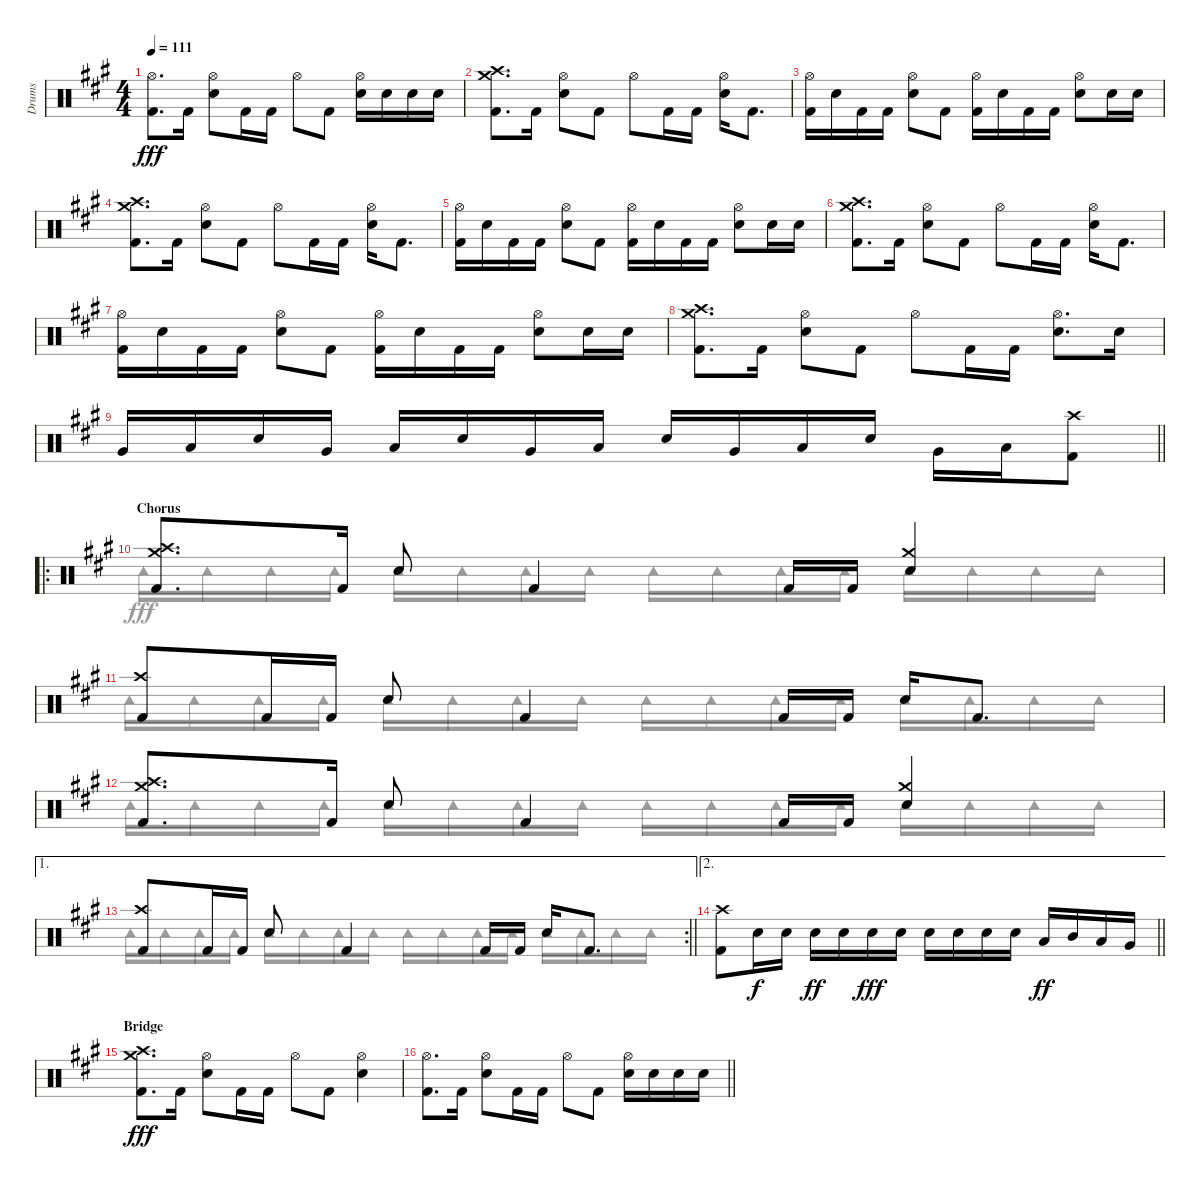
\track ("Drums" "Drums") {instrument percussion}
\staff {score}
\articulation defaults
\voice
\ts (4 4)
\tempo 111
\clef neutral
\ks a
("Hi-Hat (open)" "Kick (hit) 2").8{d dy fff} "Kick (hit) 2".16 ("Hi-Hat (open)" "Snare (hit) 2").8 "Kick (hit) 2".16 "Kick (hit) 2".16 "Hi-Hat (open)".8 "Kick (hit) 2".8 ("Hi-Hat (open)" "Snare (hit) 2").16 "Snare (hit) 2".16 "Snare (hit) 2".16 "Snare (hit) 2".16 |
("Crash medium (hit)" "Crash high (hit)" "Kick (hit) 2").8{d} "Kick (hit) 2".16 ("Hi-Hat (open)" "Snare (hit) 2").8 "Kick (hit) 2".8 "Hi-Hat (open)".8 "Kick (hit) 2".16 "Kick (hit) 2".16 ("Hi-Hat (open)" "Snare (hit) 2").16 "Kick (hit) 2".8{d} |
("Hi-Hat (open)" "Kick (hit) 2").16 "Snare (hit) 2".16 "Kick (hit) 2".16 "Kick (hit) 2".16 ("Hi-Hat (open)" "Snare (hit) 2").8 "Kick (hit) 2".8 ("Hi-Hat (open)" "Kick (hit) 2").16 "Snare (hit) 2".16 "Kick (hit) 2".16 "Kick (hit) 2".16 ("Hi-Hat (open)" "Snare (hit) 2").8 "Snare (hit) 2".16 "Snare (hit) 2".16 |
("Crash medium (hit)" "Crash high (hit)" "Kick (hit) 2").8{d} "Kick (hit) 2".16 ("Hi-Hat (open)" "Snare (hit) 2").8 "Kick (hit) 2".8 "Hi-Hat (open)".8 "Kick (hit) 2".16 "Kick (hit) 2".16 ("Hi-Hat (open)" "Snare (hit) 2").16 "Kick (hit) 2".8{d} |
("Hi-Hat (open)" "Kick (hit) 2").16 "Snare (hit) 2".16 "Kick (hit) 2".16 "Kick (hit) 2".16 ("Hi-Hat (open)" "Snare (hit) 2").8 "Kick (hit) 2".8 ("Hi-Hat (open)" "Kick (hit) 2").16 "Snare (hit) 2".16 "Kick (hit) 2".16 "Kick (hit) 2".16 ("Hi-Hat (open)" "Snare (hit) 2").8 "Snare (hit) 2".16 "Snare (hit) 2".16 |
("Crash medium (hit)" "Crash high (hit)" "Kick (hit) 2").8{d} "Kick (hit) 2".16 ("Hi-Hat (open)" "Snare (hit) 2").8 "Kick (hit) 2".8 "Hi-Hat (open)".8 "Kick (hit) 2".16 "Kick (hit) 2".16 ("Hi-Hat (open)" "Snare (hit) 2").16 "Kick (hit) 2".8{d} |
("Hi-Hat (open)" "Kick (hit) 2").16 "Snare (hit) 2".16 "Kick (hit) 2".16 "Kick (hit) 2".16 ("Hi-Hat (open)" "Snare (hit) 2").8 "Kick (hit) 2".8 ("Hi-Hat (open)" "Kick (hit) 2").16 "Snare (hit) 2".16 "Kick (hit) 2".16 "Kick (hit) 2".16 ("Hi-Hat (open)" "Snare (hit) 2").8 "Snare (hit) 2".16 "Snare (hit) 2".16 |
("Crash medium (hit)" "Crash high (hit)" "Kick (hit) 2").8{d} "Kick (hit) 2".16 ("Hi-Hat (open)" "Snare (hit) 2").8 "Kick (hit) 2".8 "Hi-Hat (open)".8 "Kick (hit) 2".16 "Kick (hit) 2".16 ("Hi-Hat (open)" "Snare (hit) 2").8{d} "Snare (hit) 2".16 |
\barLineRight lightlight "Very Low Tom (hit)".16 "Low Floor Tom (hit)".16 "Snare (hit) 2".16 "Very Low Tom (hit)".16 "Low Floor Tom (hit)".16 "Snare (hit) 2".16 "Very Low Tom (hit)".16 "Low Floor Tom (hit)".16 "Snare (hit) 2".16 "Very Low Tom (hit)".16 "Low Floor Tom (hit)".16 "Snare (hit) 2".16 "Very Low Tom (hit)".16 "Low Floor Tom (hit)".16
("Crash high (hit)" "Kick (hit) 2").8 |
\ro
\section ("" "Chorus")
("Crash medium (hit)" "Crash high (hit)" "Kick (hit) 2").8{d} "Kick (hit) 2".16 "Snare (hit) 2".8 "Kick (hit) 2".4 "Kick (hit) 2".16 "Kick (hit) 2".16 ("Crash medium (hit)" "Snare (hit) 2").4 |
("Crash high (hit)" "Kick (hit) 2").8 "Kick (hit) 2".16 "Kick (hit) 2".16 "Snare (hit) 2".8 "Kick (hit) 2".4 "Kick (hit) 2".16 "Kick (hit) 2".16 "Snare (hit) 2".16 "Kick (hit) 2".8{d} |
("Crash medium (hit)" "Crash high (hit)" "Kick (hit) 2").8{d} "Kick (hit) 2".16 "Snare (hit) 2".8 "Kick (hit) 2".4 "Kick (hit) 2".16 "Kick (hit) 2".16 ("Crash medium (hit)" "Snare (hit) 2").4 |
\ae 1
\rc 2
\barLineRight lightlight
("Crash high (hit)" "Kick (hit) 2").8 "Kick (hit) 2".16 "Kick (hit) 2".16 "Snare (hit) 2".8 "Kick (hit) 2".4 "Kick (hit) 2".16 "Kick (hit) 2".16 "Snare (hit) 2".16 "Kick (hit) 2".8{d} |
\ae 2
\barLineRight lightlight
("Crash high (hit)" "Kick (hit) 2").8 "Snare (hit) 2".16{dy f} "Snare (hit) 2".16 "Snare (hit) 2".16{dy ff} "Snare (hit) 2".16 "Snare (hit) 2".16{dy fff} "Snare (hit) 2".16 "Snare (hit) 2".16 "Snare (hit) 2".16 "Snare (hit) 2".16 "Snare (hit) 2".16 "Low Tom (hit)".16{dy ff} "Mid Tom (hit)".16 "Low Tom (hit)".16 "Very Low Tom (hit)".16 |
\section ("" "Bridge")
("Crash medium (hit)" "Crash high (hit)" "Kick (hit) 2").8{d dy fff} "Kick (hit) 2".16 ("Hi-Hat (open)" "Snare (hit) 2").8 "Kick (hit) 2".16 "Kick (hit) 2".16 "Hi-Hat (open)".8 "Kick (hit) 2".8 ("Hi-Hat (open)" "Snare (hit) 2").4 |
\barLineRight lightlight
("Hi-Hat (open)" "Kick (hit) 2").8{d} "Kick (hit) 2".16 ("Hi-Hat (open)" "Snare (hit) 2").8 "Kick (hit) 2".16 "Kick (hit) 2".16 "Hi-Hat (open)".8 "Kick (hit) 2".8 ("Hi-Hat (open)" "Snare (hit) 2").16 "Snare (hit) 2".16 "Snare (hit) 2".16 "Snare (hit) 2".16
\voice
\clef neutral
\ottava regular
\simile none
\ks a
|
|
|
|
|
|
|
|
\barLineRight lightlight
|
"Tambourine (hit)".16 "Tambourine (hit)".16 "Tambourine (hit)".16 "Tambourine (hit)".16 "Tambourine (hit)".16 "Tambourine (hit)".16 "Tambourine (hit)".16 "Tambourine (hit)".16 "Tambourine (hit)".16 "Tambourine (hit)".16 "Tambourine (hit)".16 "Tambourine (hit)".16 "Tambourine (hit)".16 "Tambourine (hit)".16 "Tambourine (hit)".16 "Tambourine (hit)".16 |
"Tambourine (hit)".16 "Tambourine (hit)".16 "Tambourine (hit)".16 "Tambourine (hit)".16 "Tambourine (hit)".16 "Tambourine (hit)".16 "Tambourine (hit)".16 "Tambourine (hit)".16 "Tambourine (hit)".16 "Tambourine (hit)".16 "Tambourine (hit)".16 "Tambourine (hit)".16 "Tambourine (hit)".16 "Tambourine (hit)".16 "Tambourine (hit)".16 "Tambourine (hit)".16 |
"Tambourine (hit)".16 "Tambourine (hit)".16 "Tambourine (hit)".16 "Tambourine (hit)".16 "Tambourine (hit)".16 "Tambourine (hit)".16 "Tambourine (hit)".16 "Tambourine (hit)".16 "Tambourine (hit)".16 "Tambourine (hit)".16 "Tambourine (hit)".16 "Tambourine (hit)".16 "Tambourine (hit)".16 "Tambourine (hit)".16 "Tambourine (hit)".16 "Tambourine (hit)".16 |
\barLineRight lightlight "Tambourine (hit)".16 "Tambourine (hit)".16 "Tambourine (hit)".16 "Tambourine (hit)".16 "Tambourine (hit)".16 "Tambourine (hit)".16 "Tambourine (hit)".16 "Tambourine (hit)".16 "Tambourine (hit)".16 "Tambourine (hit)".16 "Tambourine (hit)".16 "Tambourine (hit)".16 "Tambourine (hit)".16 "Tambourine (hit)".16 "Tambourine (hit)".16 "Tambourine (hit)".16
|
\barLineRight lightlight
|
|
\barLineRight lightlight
